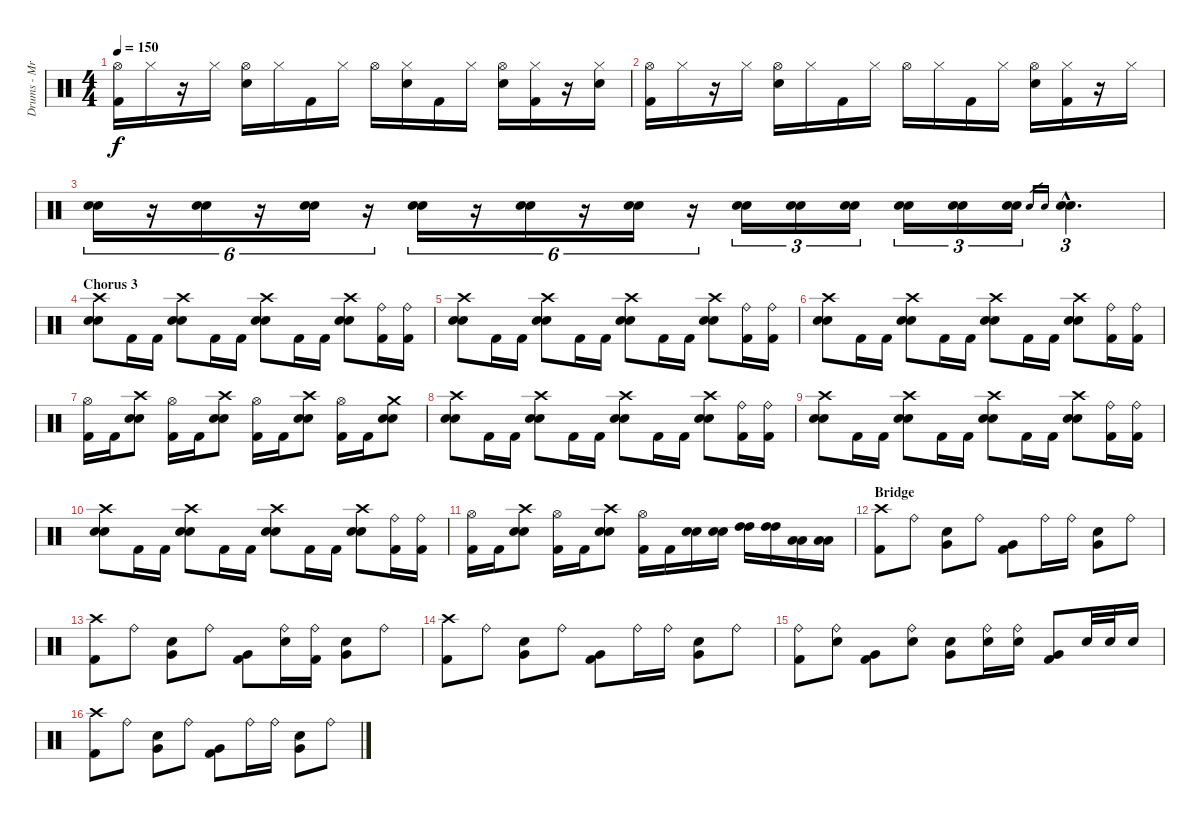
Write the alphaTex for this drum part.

\track ("Drums - Mr. Beller, Thomas" "Drums - Mr") {instrument percussion}
\staff {score}
\articulation defaults
\ts (4 4)
\tempo 150
\clef neutral
\ks c
("Hi-Hat (open)" "Kick (hit) 2").16{dy f} "Hi-Hat (closed)".16 r.16 "Hi-Hat (closed)".16 ("Hi-Hat (open)" "Electric Snare (hit)").16 "Hi-Hat (closed)".16 "Kick (hit) 2".16 "Hi-Hat (closed)".16 "Hi-Hat (open)".16 ("Hi-Hat (closed)" "Electric Snare (hit)").16 "Kick (hit) 2".16 "Hi-Hat (closed)".16 ("Hi-Hat (open)" "Electric Snare (hit)").16 ("Hi-Hat (closed)" "Kick (hit) 2").16 r.16 ("Hi-Hat (closed)" "Electric Snare (hit)").16 |
("Hi-Hat (open)" "Kick (hit) 2").16 "Hi-Hat (closed)".16 r.16 "Hi-Hat (closed)".16 ("Hi-Hat (open)" "Electric Snare (hit)").16 "Hi-Hat (closed)".16 "Kick (hit) 2".16 "Hi-Hat (closed)".16 "Hi-Hat (open)".16 "Hi-Hat (closed)".16 "Kick (hit) 2".16 "Hi-Hat (closed)".16 ("Hi-Hat (open)" "Electric Snare (hit)").16 ("Hi-Hat (closed)" "Kick (hit) 2").16 r.16 "Hi-Hat (closed)".16 |
("Electric Snare (hit)" "Electric Snare (hit)").16{tu (6 4)} r.16{tu (6 4)} ("Electric Snare (hit)" "Electric Snare (hit)").16{tu (6 4)} r.16{tu (6 4)} ("Electric Snare (hit)" "Electric Snare (hit)").16{tu (6 4)} r.16{tu (6 4)} ("Electric Snare (hit)" "Electric Snare (hit)").16{tu (6 4)} r.16{tu (6 4)} ("Electric Snare (hit)" "Electric Snare (hit)").16{tu (6 4)} r.16{tu (6 4)} ("Electric Snare (hit)" "Electric Snare (hit)").16{tu (6 4)} r.16{tu (6 4)} ("Electric Snare (hit)" "Electric Snare (hit)").16{tu (3 2)} ("Electric Snare (hit)" "Electric Snare (hit)").16{tu (3 2)} ("Electric Snare (hit)" "Electric Snare (hit)").16{tu (3 2)} ("Electric Snare (hit)" "Electric Snare (hit)").16{tu (3 2)} ("Electric Snare (hit)" "Electric Snare (hit)").16{tu (3 2)} ("Electric Snare (hit)" "Electric Snare (hit)").16{tu (3 2)} "Electric Snare (hit)".16{gr} "Electric Snare (hit)".16{gr} ("Electric Snare (hit)"{hac} "Electric Snare (hit)"{hac}).4{d tu (3 2)} |
\section ("" "Chorus 3")
("Crash high (hit)" "Electric Snare (hit)" "Electric Snare (hit)").8 "Kick (hit) 2".16 "Kick (hit) 2".16 ("Crash high (hit)" "Electric Snare (hit)" "Electric Snare (hit)").8 "Kick (hit) 2".16 "Kick (hit) 2".16 ("Crash high (hit)" "Electric Snare (hit)" "Electric Snare (hit)").8 "Kick (hit) 2".16 "Kick (hit) 2".16 ("Crash high (hit)" "Electric Snare (hit)" "Electric Snare (hit)").8 ("Ride (bell)" "Kick (hit) 2").16 ("Ride (bell)" "Kick (hit) 2").16 |
("Crash high (hit)" "Electric Snare (hit)" "Electric Snare (hit)").8 "Kick (hit) 2".16 "Kick (hit) 2".16 ("Crash high (hit)" "Electric Snare (hit)" "Electric Snare (hit)").8 "Kick (hit) 2".16 "Kick (hit) 2".16 ("Crash high (hit)" "Electric Snare (hit)" "Electric Snare (hit)").8 "Kick (hit) 2".16 "Kick (hit) 2".16 ("Crash high (hit)" "Electric Snare (hit)" "Electric Snare (hit)").8 ("Ride (bell)" "Kick (hit) 2").16 ("Ride (bell)" "Kick (hit) 2").16 |
("Crash high (hit)" "Electric Snare (hit)" "Electric Snare (hit)").8 "Kick (hit) 2".16 "Kick (hit) 2".16 ("Crash high (hit)" "Electric Snare (hit)" "Electric Snare (hit)").8 "Kick (hit) 2".16 "Kick (hit) 2".16 ("Crash high (hit)" "Electric Snare (hit)" "Electric Snare (hit)").8 "Kick (hit) 2".16 "Kick (hit) 2".16 ("Crash high (hit)" "Electric Snare (hit)" "Electric Snare (hit)").8 ("Ride (bell)" "Kick (hit) 2").16 ("Ride (bell)" "Kick (hit) 2").16 |
("Hi-Hat (open)" "Kick (hit) 2").16 "Kick (hit) 2".16 ("Crash high (hit)" "Electric Snare (hit)" "Electric Snare (hit)").8 ("Hi-Hat (open)" "Kick (hit) 2").16 "Kick (hit) 2".16 ("Crash high (hit)" "Electric Snare (hit)" "Electric Snare (hit)").8 ("Hi-Hat (open)" "Kick (hit) 2").16 "Kick (hit) 2".16 ("Crash high (hit)" "Electric Snare (hit)" "Electric Snare (hit)").8 ("Hi-Hat (open)" "Kick (hit) 2").16 "Kick (hit) 2".16 ("Crash medium (hit)" "Electric Snare (hit)" "Electric Snare (hit)").8 |
("Crash high (hit)" "Electric Snare (hit)" "Electric Snare (hit)").8 "Kick (hit) 2".16 "Kick (hit) 2".16 ("Crash high (hit)" "Electric Snare (hit)" "Electric Snare (hit)").8 "Kick (hit) 2".16 "Kick (hit) 2".16 ("Crash high (hit)" "Electric Snare (hit)" "Electric Snare (hit)").8 "Kick (hit) 2".16 "Kick (hit) 2".16 ("Crash high (hit)" "Electric Snare (hit)" "Electric Snare (hit)").8 ("Ride (bell)" "Kick (hit) 2").16 ("Ride (bell)" "Kick (hit) 2").16 |
("Crash high (hit)" "Electric Snare (hit)" "Electric Snare (hit)").8 "Kick (hit) 2".16 "Kick (hit) 2".16 ("Crash high (hit)" "Electric Snare (hit)" "Electric Snare (hit)").8 "Kick (hit) 2".16 "Kick (hit) 2".16 ("Crash high (hit)" "Electric Snare (hit)" "Electric Snare (hit)").8 "Kick (hit) 2".16 "Kick (hit) 2".16 ("Crash high (hit)" "Electric Snare (hit)" "Electric Snare (hit)").8 ("Ride (bell)" "Kick (hit) 2").16 ("Ride (bell)" "Kick (hit) 2").16 |
("Crash high (hit)" "Electric Snare (hit)" "Electric Snare (hit)").8 "Kick (hit) 2".16 "Kick (hit) 2".16 ("Crash high (hit)" "Electric Snare (hit)" "Electric Snare (hit)").8 "Kick (hit) 2".16 "Kick (hit) 2".16 ("Crash high (hit)" "Electric Snare (hit)" "Electric Snare (hit)").8 "Kick (hit) 2".16 "Kick (hit) 2".16 ("Crash high (hit)" "Electric Snare (hit)" "Electric Snare (hit)").8 ("Ride (bell)" "Kick (hit) 2").16 ("Ride (bell)" "Kick (hit) 2").16 |
("Hi-Hat (open)" "Kick (hit) 2").16 "Kick (hit) 2".16 ("Crash high (hit)" "Electric Snare (hit)" "Electric Snare (hit)").8 ("Hi-Hat (open)" "Kick (hit) 2").16 "Kick (hit) 2".16 ("Crash high (hit)" "Electric Snare (hit)" "Electric Snare (hit)").8 ("Hi-Hat (open)" "Kick (hit) 2").16 "Kick (hit) 2".16 ("Electric Snare (hit)" "Electric Snare (hit)").16 ("Electric Snare (hit)" "Electric Snare (hit)").16 ("High Tom (hit)" "High Tom (hit)").16 ("High Tom (hit)" "High Tom (hit)").16 ("Low Tom (hit)" "Low Tom (hit)").16 ("Low Tom (hit)" "Low Tom (hit)").16 |
\section ("" "Bridge")
("Crash high (hit)" "Kick (hit) 2").8 "Ride (bell)".8 ("Very Low Tom (hit)" "Electric Snare (hit)").8 "Ride (bell)".8 ("Very Low Tom (hit)" "Kick (hit) 2").8 "Ride (bell)".16 "Ride (bell)".16 ("Very Low Tom (hit)" "Electric Snare (hit)").8 "Ride (bell)".8 |
("Crash high (hit)" "Kick (hit) 2").8 "Ride (bell)".8 ("Very Low Tom (hit)" "Electric Snare (hit)").8 "Ride (bell)".8 ("Very Low Tom (hit)" "Kick (hit) 2").8 ("Ride (bell)" "Electric Snare (hit)").16 ("Ride (bell)" "Kick (hit) 2").16 ("Very Low Tom (hit)" "Electric Snare (hit)").8 "Ride (bell)".8 |
("Crash high (hit)" "Kick (hit) 2").8 "Ride (bell)".8 ("Very Low Tom (hit)" "Electric Snare (hit)").8 "Ride (bell)".8 ("Very Low Tom (hit)" "Kick (hit) 2").8 "Ride (bell)".16 "Ride (bell)".16 ("Very Low Tom (hit)" "Electric Snare (hit)").8 "Ride (bell)".8 |
("Ride (bell)" "Kick (hit) 2").8 ("Ride (bell)" "Electric Snare (hit)").8 ("Very Low Tom (hit)" "Kick (hit) 2").8 ("Ride (bell)" "Electric Snare (hit)").8 ("Very Low Tom (hit)" "Electric Snare (hit)").8 ("Ride (bell)" "Electric Snare (hit)").16 ("Ride (bell)" "Electric Snare (hit)").16 ("Very Low Tom (hit)" "Kick (hit) 2").8 "Electric Snare (hit)".32 "Electric Snare (hit)".32 "Electric Snare (hit)".16 |
("Crash high (hit)" "Kick (hit) 2").8 "Ride (bell)".8 ("Very Low Tom (hit)" "Electric Snare (hit)").8 "Ride (bell)".8 ("Very Low Tom (hit)" "Kick (hit) 2").8 "Ride (bell)".16 "Ride (bell)".16 ("Very Low Tom (hit)" "Electric Snare (hit)").8 "Ride (bell)".8
